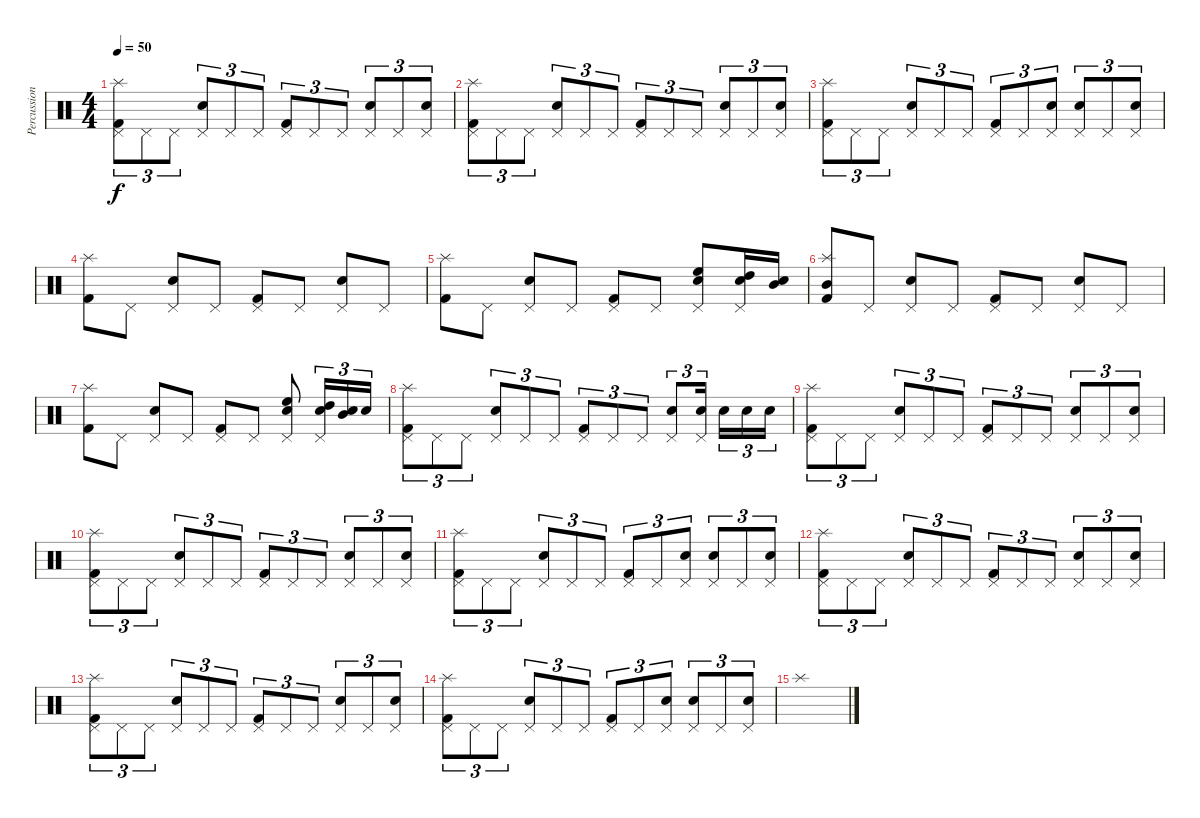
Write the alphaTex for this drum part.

\track ("Percussion" "Percussion") {instrument percussion}
\staff {score}
\articulation defaults
\ts (4 4)
\tempo 50
\clef neutral
\ks c
("Pedal Hi-Hat (hit)" "Kick (hit) 2" "Splash (hit)").8{tu (3 2) dy f} "Pedal Hi-Hat (hit)".8{tu (3 2)} "Pedal Hi-Hat (hit)".8{tu (3 2)} ("Pedal Hi-Hat (hit)" "Electric Snare (hit)").8{tu (3 2)} "Pedal Hi-Hat (hit)".8{tu (3 2)} "Pedal Hi-Hat (hit)".8{tu (3 2)} ("Pedal Hi-Hat (hit)" "Kick (hit) 2").8{tu (3 2)} "Pedal Hi-Hat (hit)".8{tu (3 2)} "Pedal Hi-Hat (hit)".8{tu (3 2)} ("Pedal Hi-Hat (hit)" "Electric Snare (hit)").8{tu (3 2)} "Pedal Hi-Hat (hit)".8{tu (3 2)} ("Pedal Hi-Hat (hit)" "Electric Snare (hit)").8{tu (3 2)} |
("Pedal Hi-Hat (hit)" "Kick (hit) 2" "Splash (hit)").8{tu (3 2)} "Pedal Hi-Hat (hit)".8{tu (3 2)} "Pedal Hi-Hat (hit)".8{tu (3 2)} ("Pedal Hi-Hat (hit)" "Electric Snare (hit)").8{tu (3 2)} "Pedal Hi-Hat (hit)".8{tu (3 2)} "Pedal Hi-Hat (hit)".8{tu (3 2)} ("Pedal Hi-Hat (hit)" "Kick (hit) 2").8{tu (3 2)} "Pedal Hi-Hat (hit)".8{tu (3 2)} "Pedal Hi-Hat (hit)".8{tu (3 2)} ("Pedal Hi-Hat (hit)" "Electric Snare (hit)").8{tu (3 2)} "Pedal Hi-Hat (hit)".8{tu (3 2)} ("Pedal Hi-Hat (hit)" "Electric Snare (hit)").8{tu (3 2)} |
("Pedal Hi-Hat (hit)" "Kick (hit) 2" "Splash (hit)").8{tu (3 2)} "Pedal Hi-Hat (hit)".8{tu (3 2)} "Pedal Hi-Hat (hit)".8{tu (3 2)} ("Pedal Hi-Hat (hit)" "Electric Snare (hit)").8{tu (3 2)} "Pedal Hi-Hat (hit)".8{tu (3 2)} "Pedal Hi-Hat (hit)".8{tu (3 2)} ("Pedal Hi-Hat (hit)" "Kick (hit) 2").8{tu (3 2)} "Pedal Hi-Hat (hit)".8{tu (3 2)} ("Pedal Hi-Hat (hit)" "Electric Snare (hit)").8{tu (3 2)} ("Pedal Hi-Hat (hit)" "Electric Snare (hit)").8{tu (3 2)} "Pedal Hi-Hat (hit)".8{tu (3 2)} ("Pedal Hi-Hat (hit)" "Electric Snare (hit)").8{tu (3 2)} |
("Splash (hit)" "Kick (hit) 2").8 "Pedal Hi-Hat (hit)".8 ("Pedal Hi-Hat (hit)" "Electric Snare (hit)").8 "Pedal Hi-Hat (hit)".8 ("Pedal Hi-Hat (hit)" "Kick (hit) 2").8 "Pedal Hi-Hat (hit)".8 ("Pedal Hi-Hat (hit)" "Electric Snare (hit)").8 "Pedal Hi-Hat (hit)".8 |
("Splash (hit)" "Kick (hit) 2").8 "Pedal Hi-Hat (hit)".8 ("Pedal Hi-Hat (hit)" "Electric Snare (hit)").8 "Pedal Hi-Hat (hit)".8 ("Pedal Hi-Hat (hit)" "Kick (hit) 2").8 "Pedal Hi-Hat (hit)".8 ("Pedal Hi-Hat (hit)" "Electric Snare (hit)" "High Floor Tom (hit)").8 ("Pedal Hi-Hat (hit)" "Electric Snare (hit)" "High Tom (hit)").16 ("Electric Snare (hit)" "Mid Tom (hit)").16 |
("Splash (hit)" "Kick (hit) 2" "Mid Tom (hit)").8 "Pedal Hi-Hat (hit)".8 ("Pedal Hi-Hat (hit)" "Electric Snare (hit)").8 "Pedal Hi-Hat (hit)".8 ("Pedal Hi-Hat (hit)" "Kick (hit) 2").8 "Pedal Hi-Hat (hit)".8 ("Pedal Hi-Hat (hit)" "Electric Snare (hit)").8 "Pedal Hi-Hat (hit)".8 |
("Splash (hit)" "Kick (hit) 2").8 "Pedal Hi-Hat (hit)".8 ("Pedal Hi-Hat (hit)" "Electric Snare (hit)").8 "Pedal Hi-Hat (hit)".8 ("Pedal Hi-Hat (hit)" "Kick (hit) 2").8 "Pedal Hi-Hat (hit)".8 ("Pedal Hi-Hat (hit)" "Electric Snare (hit)" "High Floor Tom (hit)").8 ("Pedal Hi-Hat (hit)" "Electric Snare (hit)" "High Tom (hit)").16{tu (3 2)} ("Electric Snare (hit)" "Mid Tom (hit)").16{tu (3 2)} "Electric Snare (hit)".16{tu (3 2)} |
("Pedal Hi-Hat (hit)" "Kick (hit) 2" "Splash (hit)").8{tu (3 2)} "Pedal Hi-Hat (hit)".8{tu (3 2)} "Pedal Hi-Hat (hit)".8{tu (3 2)} ("Pedal Hi-Hat (hit)" "Electric Snare (hit)").8{tu (3 2)} "Pedal Hi-Hat (hit)".8{tu (3 2)} "Pedal Hi-Hat (hit)".8{tu (3 2)} ("Pedal Hi-Hat (hit)" "Kick (hit) 2").8{tu (3 2)} "Pedal Hi-Hat (hit)".8{tu (3 2)} "Pedal Hi-Hat (hit)".8{tu (3 2)} ("Pedal Hi-Hat (hit)" "Electric Snare (hit)").8{tu (3 2)} ("Pedal Hi-Hat (hit)" "Electric Snare (hit)").16{tu (3 2)} "Electric Snare (hit)".16{tu (3 2)} "Electric Snare (hit)".16{tu (3 2)} "Electric Snare (hit)".16{tu (3 2)} |
("Pedal Hi-Hat (hit)" "Kick (hit) 2" "Splash (hit)").8{tu (3 2)} "Pedal Hi-Hat (hit)".8{tu (3 2)} "Pedal Hi-Hat (hit)".8{tu (3 2)} ("Pedal Hi-Hat (hit)" "Electric Snare (hit)").8{tu (3 2)} "Pedal Hi-Hat (hit)".8{tu (3 2)} "Pedal Hi-Hat (hit)".8{tu (3 2)} ("Pedal Hi-Hat (hit)" "Kick (hit) 2").8{tu (3 2)} "Pedal Hi-Hat (hit)".8{tu (3 2)} "Pedal Hi-Hat (hit)".8{tu (3 2)} ("Pedal Hi-Hat (hit)" "Electric Snare (hit)").8{tu (3 2)} "Pedal Hi-Hat (hit)".8{tu (3 2)} ("Pedal Hi-Hat (hit)" "Electric Snare (hit)").8{tu (3 2)} |
("Pedal Hi-Hat (hit)" "Kick (hit) 2" "Splash (hit)").8{tu (3 2)} "Pedal Hi-Hat (hit)".8{tu (3 2)} "Pedal Hi-Hat (hit)".8{tu (3 2)} ("Pedal Hi-Hat (hit)" "Electric Snare (hit)").8{tu (3 2)} "Pedal Hi-Hat (hit)".8{tu (3 2)} "Pedal Hi-Hat (hit)".8{tu (3 2)} ("Pedal Hi-Hat (hit)" "Kick (hit) 2").8{tu (3 2)} "Pedal Hi-Hat (hit)".8{tu (3 2)} "Pedal Hi-Hat (hit)".8{tu (3 2)} ("Pedal Hi-Hat (hit)" "Electric Snare (hit)").8{tu (3 2)} "Pedal Hi-Hat (hit)".8{tu (3 2)} ("Pedal Hi-Hat (hit)" "Electric Snare (hit)").8{tu (3 2)} |
("Pedal Hi-Hat (hit)" "Kick (hit) 2" "Splash (hit)").8{tu (3 2)} "Pedal Hi-Hat (hit)".8{tu (3 2)} "Pedal Hi-Hat (hit)".8{tu (3 2)} ("Pedal Hi-Hat (hit)" "Electric Snare (hit)").8{tu (3 2)} "Pedal Hi-Hat (hit)".8{tu (3 2)} "Pedal Hi-Hat (hit)".8{tu (3 2)} ("Pedal Hi-Hat (hit)" "Kick (hit) 2").8{tu (3 2)} "Pedal Hi-Hat (hit)".8{tu (3 2)} ("Pedal Hi-Hat (hit)" "Electric Snare (hit)").8{tu (3 2)} ("Pedal Hi-Hat (hit)" "Electric Snare (hit)").8{tu (3 2)} "Pedal Hi-Hat (hit)".8{tu (3 2)} ("Pedal Hi-Hat (hit)" "Electric Snare (hit)").8{tu (3 2)} |
("Pedal Hi-Hat (hit)" "Kick (hit) 2" "Splash (hit)").8{tu (3 2)} "Pedal Hi-Hat (hit)".8{tu (3 2)} "Pedal Hi-Hat (hit)".8{tu (3 2)} ("Pedal Hi-Hat (hit)" "Electric Snare (hit)").8{tu (3 2)} "Pedal Hi-Hat (hit)".8{tu (3 2)} "Pedal Hi-Hat (hit)".8{tu (3 2)} ("Pedal Hi-Hat (hit)" "Kick (hit) 2").8{tu (3 2)} "Pedal Hi-Hat (hit)".8{tu (3 2)} "Pedal Hi-Hat (hit)".8{tu (3 2)} ("Pedal Hi-Hat (hit)" "Electric Snare (hit)").8{tu (3 2)} "Pedal Hi-Hat (hit)".8{tu (3 2)} ("Pedal Hi-Hat (hit)" "Electric Snare (hit)").8{tu (3 2)} |
("Pedal Hi-Hat (hit)" "Kick (hit) 2" "Splash (hit)").8{tu (3 2)} "Pedal Hi-Hat (hit)".8{tu (3 2)} "Pedal Hi-Hat (hit)".8{tu (3 2)} ("Pedal Hi-Hat (hit)" "Electric Snare (hit)").8{tu (3 2)} "Pedal Hi-Hat (hit)".8{tu (3 2)} "Pedal Hi-Hat (hit)".8{tu (3 2)} ("Pedal Hi-Hat (hit)" "Kick (hit) 2").8{tu (3 2)} "Pedal Hi-Hat (hit)".8{tu (3 2)} "Pedal Hi-Hat (hit)".8{tu (3 2)} ("Pedal Hi-Hat (hit)" "Electric Snare (hit)").8{tu (3 2)} "Pedal Hi-Hat (hit)".8{tu (3 2)} ("Pedal Hi-Hat (hit)" "Electric Snare (hit)").8{tu (3 2)} |
("Pedal Hi-Hat (hit)" "Kick (hit) 2" "Splash (hit)").8{tu (3 2)} "Pedal Hi-Hat (hit)".8{tu (3 2)} "Pedal Hi-Hat (hit)".8{tu (3 2)} ("Pedal Hi-Hat (hit)" "Electric Snare (hit)").8{tu (3 2)} "Pedal Hi-Hat (hit)".8{tu (3 2)} "Pedal Hi-Hat (hit)".8{tu (3 2)} ("Pedal Hi-Hat (hit)" "Kick (hit) 2").8{tu (3 2)} "Pedal Hi-Hat (hit)".8{tu (3 2)} ("Pedal Hi-Hat (hit)" "Electric Snare (hit)").8{tu (3 2)} ("Pedal Hi-Hat (hit)" "Electric Snare (hit)").8{tu (3 2)} "Pedal Hi-Hat (hit)".8{tu (3 2)} ("Pedal Hi-Hat (hit)" "Electric Snare (hit)").8{tu (3 2)} |
"Splash (hit)".1
